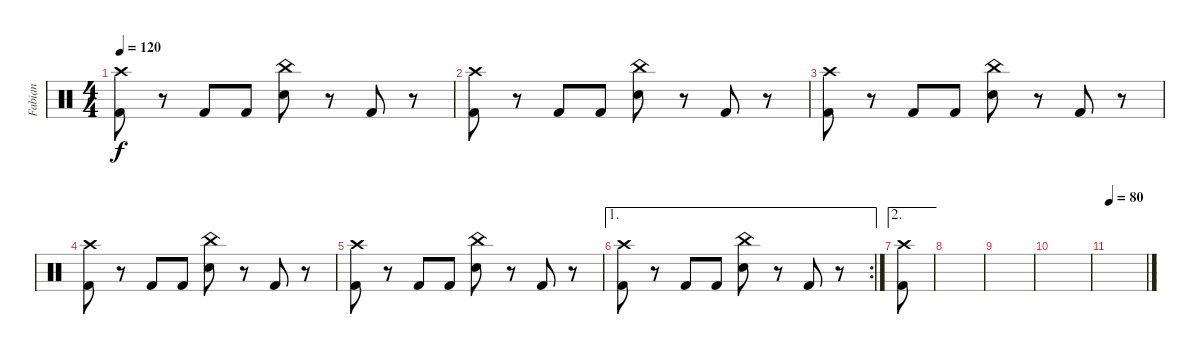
\track ("Fabian" "Fabian") {instrument percussion}
\staff {score}
\articulation defaults
\ts (4 4)
\tempo 120
\clef neutral
\ks c
("Crash high (hit)" "Kick (hit) 2").8{dy f} r.8 "Kick (hit) 2".8 "Kick (hit) 2".8 ("China (hit)" "Snare (hit) 2").8 r.8 "Kick (hit) 2".8 r.8 |
("Crash high (hit)" "Kick (hit) 2").8 r.8 "Kick (hit) 2".8 "Kick (hit) 2".8 ("China (hit)" "Snare (hit) 2").8 r.8 "Kick (hit) 2".8 r.8 |
("Crash high (hit)" "Kick (hit) 2").8 r.8 "Kick (hit) 2".8 "Kick (hit) 2".8 ("China (hit)" "Snare (hit) 2").8 r.8 "Kick (hit) 2".8 r.8 |
("Crash high (hit)" "Kick (hit) 2").8 r.8 "Kick (hit) 2".8 "Kick (hit) 2".8 ("China (hit)" "Snare (hit) 2").8 r.8 "Kick (hit) 2".8 r.8 |
("Crash high (hit)" "Kick (hit) 2").8 r.8 "Kick (hit) 2".8 "Kick (hit) 2".8 ("China (hit)" "Snare (hit) 2").8 r.8 "Kick (hit) 2".8 r.8 |
\ae 1
\rc 2
("Crash high (hit)" "Kick (hit) 2").8 r.8 "Kick (hit) 2".8 "Kick (hit) 2".8 ("China (hit)" "Snare (hit) 2").8 r.8 "Kick (hit) 2".8 r.8 |
\ae 2
("Crash high (hit)" "Kick (hit) 2").8 |
|
|
|
\tempo 80
